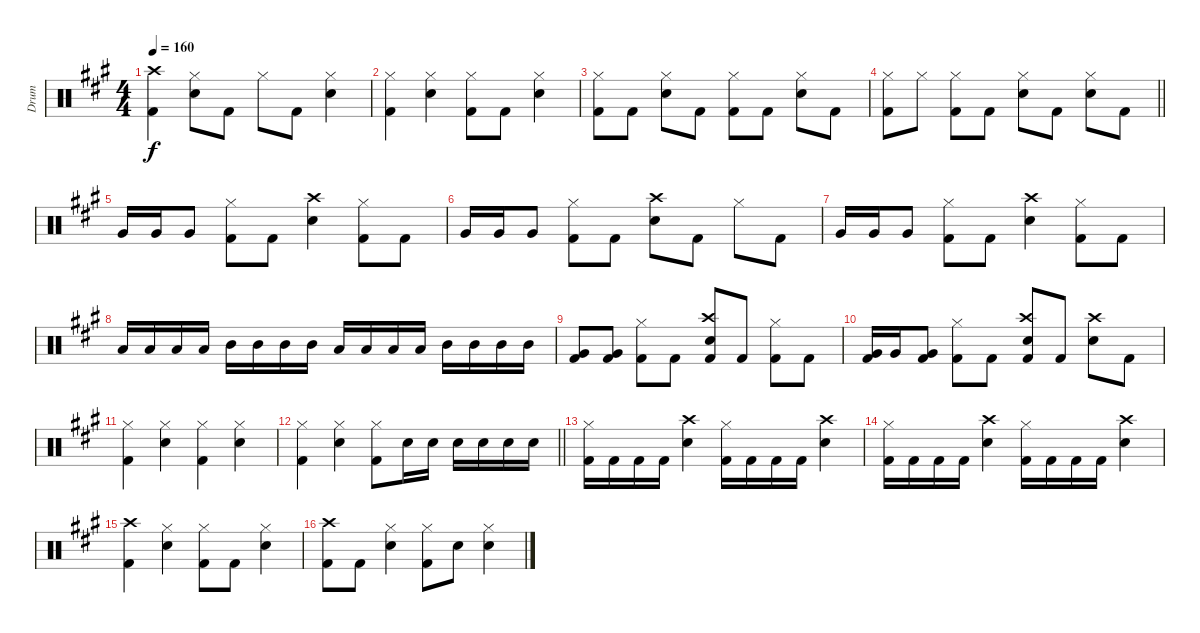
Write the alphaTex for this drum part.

\track ("Drum" "Drum") {instrument percussion}
\staff {score}
\articulation defaults
\ts (4 4)
\tempo 160
\clef neutral
\ks a
("Kick (hit) 2" "Crash high (hit)").4{dy f} ("Hi-Hat (closed)" "Snare (hit) 2").8 "Kick (hit) 2".8 "Hi-Hat (closed)".8 "Kick (hit) 2".8 ("Hi-Hat (closed)" "Snare (hit) 2").4 |
("Hi-Hat (closed)" "Kick (hit) 2").4 ("Hi-Hat (closed)" "Snare (hit) 2").4 ("Hi-Hat (closed)" "Kick (hit) 2").8 "Kick (hit) 2".8 ("Hi-Hat (closed)" "Snare (hit) 2").4 |
("Hi-Hat (closed)" "Kick (hit) 2").8 "Kick (hit) 2".8 ("Hi-Hat (closed)" "Snare (hit) 2").8 "Kick (hit) 2".8 ("Hi-Hat (closed)" "Kick (hit) 2").8 "Kick (hit) 2".8 ("Hi-Hat (closed)" "Snare (hit) 2").8 "Kick (hit) 2".8 |
\barLineRight lightlight
("Hi-Hat (closed)" "Kick (hit) 2").8 "Hi-Hat (closed)".8 ("Hi-Hat (closed)" "Kick (hit) 2").8 "Kick (hit) 2".8 ("Hi-Hat (closed)" "Snare (hit) 2").8 "Kick (hit) 2".8 ("Hi-Hat (closed)" "Snare (hit) 2").8 "Kick (hit) 2".8 |
"Very Low Tom (hit)".16 "Very Low Tom (hit)".16 "Very Low Tom (hit)".8 ("Hi-Hat (closed)" "Kick (hit) 2").8 "Kick (hit) 2".8 ("Snare (hit) 2" "Crash high (hit)").4 ("Hi-Hat (closed)" "Kick (hit) 2").8 "Kick (hit) 2".8 |
"Very Low Tom (hit)".16 "Very Low Tom (hit)".16 "Very Low Tom (hit)".8 ("Hi-Hat (closed)" "Kick (hit) 2").8 "Kick (hit) 2".8 ("Snare (hit) 2" "Crash high (hit)").8 "Kick (hit) 2".8 "Hi-Hat (closed)".8 "Kick (hit) 2".8 |
"Very Low Tom (hit)".16 "Very Low Tom (hit)".16 "Very Low Tom (hit)".8 ("Hi-Hat (closed)" "Kick (hit) 2").8 "Kick (hit) 2".8 ("Snare (hit) 2" "Crash high (hit)").4 ("Hi-Hat (closed)" "Kick (hit) 2").8 "Kick (hit) 2".8 |
"Low Tom (hit)".16 "Low Tom (hit)".16 "Low Tom (hit)".16 "Low Tom (hit)".16 "Mid Tom (hit)".16 "Mid Tom (hit)".16 "Mid Tom (hit)".16 "Mid Tom (hit)".16 "Low Tom (hit)".16 "Low Tom (hit)".16 "Low Tom (hit)".16 "Low Tom (hit)".16 "Mid Tom (hit)".16 "Mid Tom (hit)".16 "Mid Tom (hit)".16 "Mid Tom (hit)".16 |
("Kick (hit) 2" "Very Low Tom (hit)").8 ("Kick (hit) 2" "Very Low Tom (hit)").8 ("Hi-Hat (closed)" "Kick (hit) 2").8 "Kick (hit) 2".8 ("Snare (hit) 2" "Kick (hit) 2" "Crash high (hit)").8 "Kick (hit) 2".8 ("Hi-Hat (closed)" "Kick (hit) 2").8 "Kick (hit) 2".8 |
("Kick (hit) 2" "Very Low Tom (hit)").16 "Very Low Tom (hit)".16 ("Kick (hit) 2" "Very Low Tom (hit)").8 ("Hi-Hat (closed)" "Kick (hit) 2").8 "Kick (hit) 2".8 ("Snare (hit) 2" "Kick (hit) 2" "Crash high (hit)").8 "Kick (hit) 2".8 ("Snare (hit) 2" "Crash high (hit)").8 "Kick (hit) 2".8 |
("Hi-Hat (closed)" "Kick (hit) 2").4 ("Hi-Hat (closed)" "Snare (hit) 2").4 ("Hi-Hat (closed)" "Kick (hit) 2").4 ("Hi-Hat (closed)" "Snare (hit) 2").4 |
\barLineRight lightlight
("Hi-Hat (closed)" "Kick (hit) 2").4 ("Hi-Hat (closed)" "Snare (hit) 2").4 ("Hi-Hat (closed)" "Kick (hit) 2").8 "Snare (hit) 2".16 "Snare (hit) 2".16 "Snare (hit) 2".16 "Snare (hit) 2".16 "Snare (hit) 2".16 "Snare (hit) 2".16 |
("Hi-Hat (closed)" "Kick (hit) 2").16 "Kick (hit) 2".16 "Kick (hit) 2".16 "Kick (hit) 2".16 ("Snare (hit) 2" "Crash high (hit)").4 ("Hi-Hat (closed)" "Kick (hit) 2").16 "Kick (hit) 2".16 "Kick (hit) 2".16 "Kick (hit) 2".16 ("Snare (hit) 2" "Crash high (hit)").4 |
("Hi-Hat (closed)" "Kick (hit) 2").16 "Kick (hit) 2".16 "Kick (hit) 2".16 "Kick (hit) 2".16 ("Snare (hit) 2" "Crash high (hit)").4 ("Hi-Hat (closed)" "Kick (hit) 2").16 "Kick (hit) 2".16 "Kick (hit) 2".16 "Kick (hit) 2".16 ("Snare (hit) 2" "Crash high (hit)").4 |
("Kick (hit) 2" "Crash high (hit)").4 ("Hi-Hat (closed)" "Snare (hit) 2").4 ("Hi-Hat (closed)" "Kick (hit) 2").8 "Kick (hit) 2".8 ("Hi-Hat (closed)" "Snare (hit) 2").4 |
("Crash high (hit)" "Kick (hit) 2").8 "Kick (hit) 2".8 ("Hi-Hat (closed)" "Snare (hit) 2").4 ("Hi-Hat (closed)" "Kick (hit) 2").8 "Snare (hit) 2".8 ("Hi-Hat (closed)" "Snare (hit) 2").4
